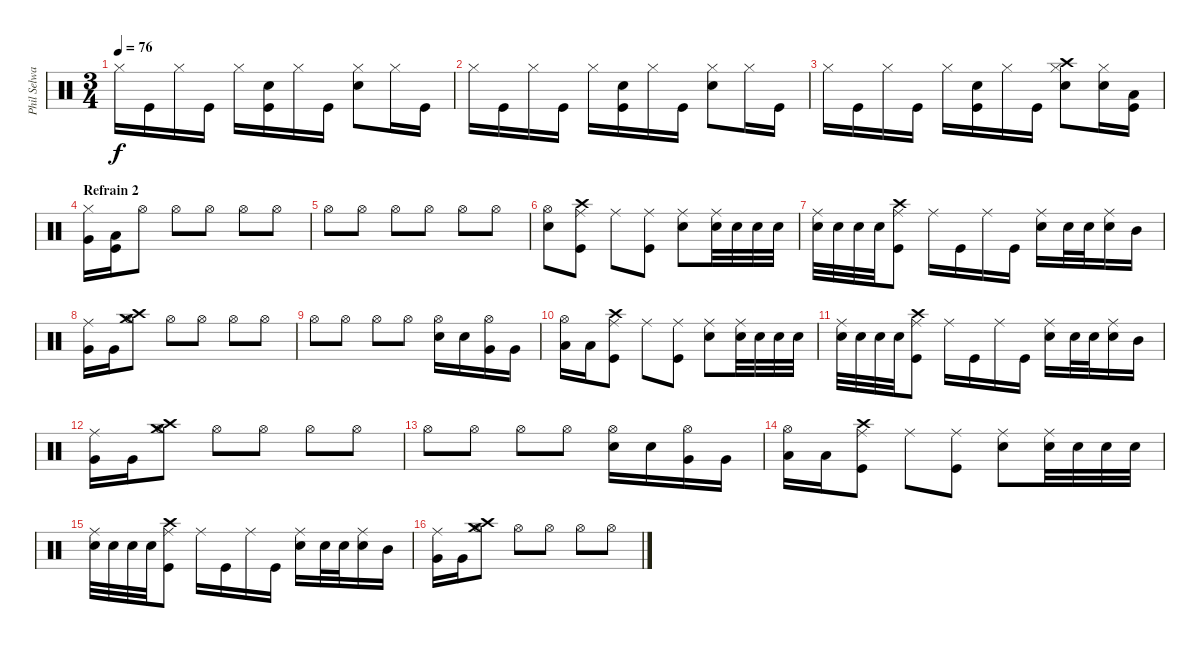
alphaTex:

\track ("Phil Selway" "Phil Selwa") {instrument percussion}
\staff {score}
\articulation defaults
\ts (3 4)
\tempo 76
\clef neutral
\ks c "Hi-Hat (closed)".16{dy f} "Kick (hit)".16 "Hi-Hat (closed)".16 "Kick (hit)".16 "Hi-Hat (closed)".16
("Kick (hit)" "Snare (hit) 2").16 "Hi-Hat (closed)".16 "Kick (hit)".16 ("Snare (hit) 2" "Hi-Hat (closed)").8 "Hi-Hat (closed)".16 "Kick (hit)".16 |
"Hi-Hat (closed)".16 "Kick (hit)".16 "Hi-Hat (closed)".16 "Kick (hit)".16 "Hi-Hat (closed)".16 ("Kick (hit)" "Snare (hit) 2").16 "Hi-Hat (closed)".16 "Kick (hit)".16 ("Snare (hit) 2" "Hi-Hat (closed)").8 "Hi-Hat (closed)".16 "Kick (hit)".16 |
"Hi-Hat (closed)".16 "Kick (hit)".16 "Hi-Hat (closed)".16 "Kick (hit)".16 "Hi-Hat (closed)".16 ("Kick (hit)" "Snare (hit) 2").16 "Hi-Hat (closed)".16 "Kick (hit)".16 ("Snare (hit) 2" "Hi-Hat (closed)" "Crash high (hit)").8 ("Snare (hit) 2" "Hi-Hat (closed)").16 ("Kick (hit)" "Low Tom (hit)").16 |
\section ("" "Refrain 2")
("Hi-Hat (closed)" "Very Low Tom (hit)").16 ("Kick (hit)" "Low Floor Tom (hit)").16 "Hi-Hat (open)".8 "Hi-Hat (open)".8 "Hi-Hat (open)".8 "Hi-Hat (open)".8 "Hi-Hat (open)".8 |
"Hi-Hat (open)".8 "Hi-Hat (open)".8 "Hi-Hat (open)".8 "Hi-Hat (open)".8 "Hi-Hat (open)".8 "Hi-Hat (open)".8 |
("Snare (hit) 2" "Hi-Hat (open)").8 ("Kick (hit)" "Crash high (hit)" "Ride (middle)").8 "Ride (middle)".8 ("Kick (hit)" "Ride (middle)").8 ("Snare (hit) 2" "Ride (middle)").8 ("Snare (hit) 2" "Ride (middle)").32 "Snare (hit) 2".32 "Snare (hit) 2".32 "Snare (hit) 2".32 |
("Snare (hit) 2" "Ride (middle)").32 "Snare (hit) 2".32 "Snare (hit) 2".32 "Snare (hit) 2".32 ("Kick (hit)" "Crash high (hit)" "Ride (middle)").8 "Ride (middle)".16 "Kick (hit)".16 "Ride (middle)".16 "Kick (hit)".16 ("Snare (hit) 2" "Ride (middle)").16 "Snare (hit) 2".32 "Snare (hit) 2".32 ("Snare (hit) 2" "Ride (middle)").16 "Mid Tom (hit)".16 |
("Very Low Tom (hit)" "Ride (middle)").16 "Very Low Tom (hit)".16 ("Hi-Hat (open)" "Crash high (hit)" "Crash medium (hit)").8 "Hi-Hat (open)".8 "Hi-Hat (open)".8 "Hi-Hat (open)".8 "Hi-Hat (open)".8 |
"Hi-Hat (open)".8 "Hi-Hat (open)".8 "Hi-Hat (open)".8 "Hi-Hat (open)".8 ("Snare (hit) 2" "Hi-Hat (open)").16 "Snare (hit) 2".16 ("Very Low Tom (hit)" "Hi-Hat (open)").16 "Very Low Tom (hit)".16 |
("Low Floor Tom (hit)" "Hi-Hat (open)").16 "Low Floor Tom (hit)".16 ("Kick (hit)" "Crash high (hit)" "Ride (middle)").8 "Ride (middle)".8 ("Kick (hit)" "Ride (middle)").8 ("Snare (hit) 2" "Ride (middle)").8 ("Snare (hit) 2" "Ride (middle)").32 "Snare (hit) 2".32 "Snare (hit) 2".32 "Snare (hit) 2".32 |
("Snare (hit) 2" "Ride (middle)").32 "Snare (hit) 2".32 "Snare (hit) 2".32 "Snare (hit) 2".32 ("Kick (hit)" "Crash high (hit)" "Ride (middle)").8 "Ride (middle)".16 "Kick (hit)".16 "Ride (middle)".16 "Kick (hit)".16 ("Snare (hit) 2" "Ride (middle)").16 "Snare (hit) 2".32 "Snare (hit) 2".32 ("Snare (hit) 2" "Ride (middle)").16 "Mid Tom (hit)".16 |
("Very Low Tom (hit)" "Ride (middle)").16 "Very Low Tom (hit)".16 ("Hi-Hat (open)" "Crash high (hit)" "Crash medium (hit)").8 "Hi-Hat (open)".8 "Hi-Hat (open)".8 "Hi-Hat (open)".8 "Hi-Hat (open)".8 |
"Hi-Hat (open)".8 "Hi-Hat (open)".8 "Hi-Hat (open)".8 "Hi-Hat (open)".8 ("Snare (hit) 2" "Hi-Hat (open)").16 "Snare (hit) 2".16 ("Very Low Tom (hit)" "Hi-Hat (open)").16 "Very Low Tom (hit)".16 |
("Low Floor Tom (hit)" "Hi-Hat (open)").16 "Low Floor Tom (hit)".16 ("Kick (hit)" "Crash high (hit)" "Ride (middle)").8 "Ride (middle)".8 ("Kick (hit)" "Ride (middle)").8 ("Snare (hit) 2" "Ride (middle)").8 ("Snare (hit) 2" "Ride (middle)").32 "Snare (hit) 2".32 "Snare (hit) 2".32 "Snare (hit) 2".32 |
("Snare (hit) 2" "Ride (middle)").32 "Snare (hit) 2".32 "Snare (hit) 2".32 "Snare (hit) 2".32 ("Kick (hit)" "Crash high (hit)" "Ride (middle)").8 "Ride (middle)".16 "Kick (hit)".16 "Ride (middle)".16 "Kick (hit)".16 ("Snare (hit) 2" "Ride (middle)").16 "Snare (hit) 2".32 "Snare (hit) 2".32 ("Snare (hit) 2" "Ride (middle)").16 "Mid Tom (hit)".16 |
("Very Low Tom (hit)" "Ride (middle)").16 "Very Low Tom (hit)".16 ("Hi-Hat (open)" "Crash high (hit)" "Crash medium (hit)").8 "Hi-Hat (open)".8 "Hi-Hat (open)".8 "Hi-Hat (open)".8 "Hi-Hat (open)".8
